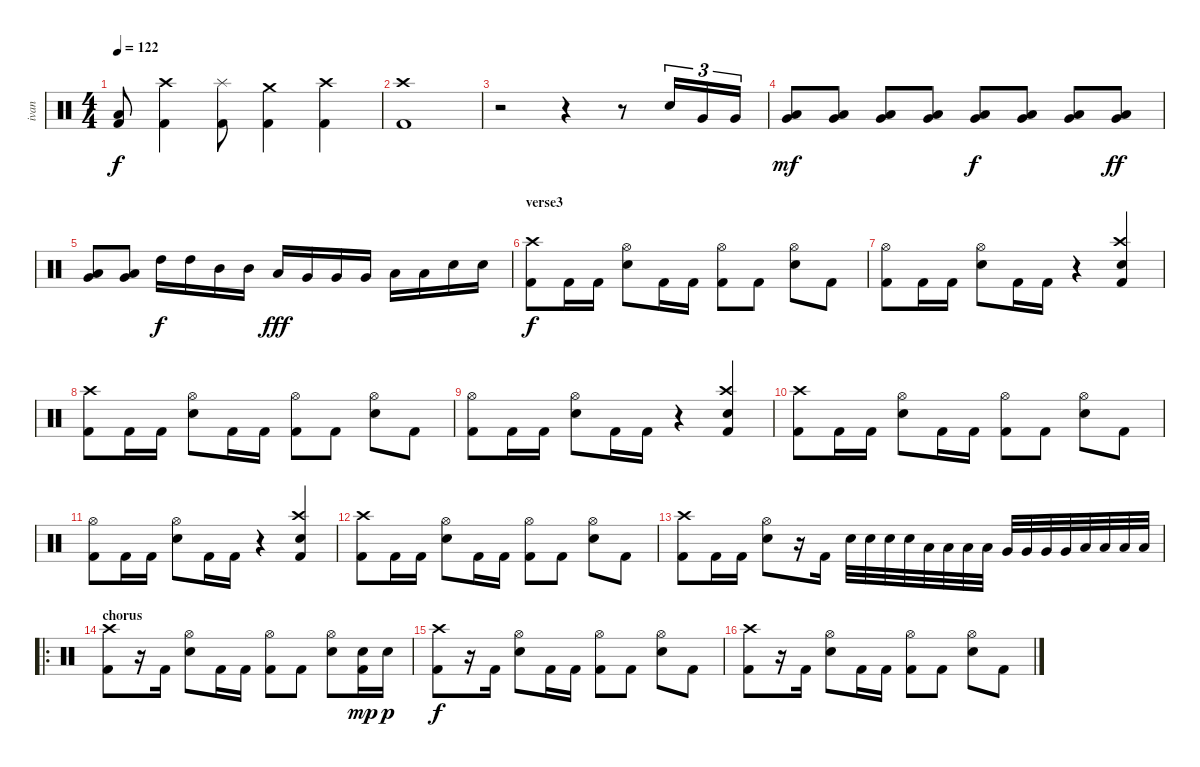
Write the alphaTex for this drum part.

\track ("ivan" "ivan") {instrument percussion}
\staff {score}
\articulation defaults
\ts (4 4)
\tempo 122
\clef neutral
\ks c
("Low Floor Tom (hit)" "Kick (hit) 2").8{dy f} ("Crash high (hit)" "Kick (hit) 2").4 ("Splash (hit)" "Kick (hit) 2").8 ("Crash medium (hit)" "Kick (hit) 2").4 ("Crash high (hit)" "Kick (hit) 2").4 |
("Crash high (hit)" "Kick (hit) 2").1 |
r.2 r.4 r.8 "Electric Snare (hit)".16{tu (3 2)} "Very Low Tom (hit)".16{tu (3 2)} "Very Low Tom (hit)".16{tu (3 2)} |
("Very Low Tom (hit)" "Low Floor Tom (hit)").8{dy mf} ("Very Low Tom (hit)" "Low Floor Tom (hit)").8 ("Very Low Tom (hit)" "Low Floor Tom (hit)").8 ("Very Low Tom (hit)" "Low Floor Tom (hit)").8 ("Very Low Tom (hit)" "Low Floor Tom (hit)").8{dy f} ("Very Low Tom (hit)" "Low Floor Tom (hit)").8 ("Very Low Tom (hit)" "Low Floor Tom (hit)").8 ("Very Low Tom (hit)" "Low Floor Tom (hit)").8{dy ff} |
("Very Low Tom (hit)" "Low Floor Tom (hit)").8 ("Very Low Tom (hit)" "Low Floor Tom (hit)").8 "High Tom (hit)".16{dy f} "High Tom (hit)".16 "Mid Tom (hit)".16 "Mid Tom (hit)".16 "Low Tom (hit)".16{dy fff} "Very Low Tom (hit)".16 "Very Low Tom (hit)".16 "Very Low Tom (hit)".16 "Low Floor Tom (hit)".16 "Low Floor Tom (hit)".16 "Electric Snare (hit)".16 "Electric Snare (hit)".16 |
\section ("" "verse3")
("Crash high (hit)" "Kick (hit) 2").8{dy f} "Kick (hit) 2".16 "Kick (hit) 2".16 ("Hi-Hat (open)" "Electric Snare (hit)").8 "Kick (hit) 2".16 "Kick (hit) 2".16 ("Hi-Hat (open)" "Kick (hit) 2").8 "Kick (hit) 2".8 ("Hi-Hat (open)" "Electric Snare (hit)").8 "Kick (hit) 2".8 |
("Hi-Hat (open)" "Kick (hit) 2").8 "Kick (hit) 2".16 "Kick (hit) 2".16 ("Hi-Hat (open)" "Electric Snare (hit)").8 "Kick (hit) 2".16 "Kick (hit) 2".16 r.4 ("Crash high (hit)" "Electric Snare (hit)" "Kick (hit) 2").4 |
("Crash high (hit)" "Kick (hit) 2").8 "Kick (hit) 2".16 "Kick (hit) 2".16 ("Hi-Hat (open)" "Electric Snare (hit)").8 "Kick (hit) 2".16 "Kick (hit) 2".16 ("Hi-Hat (open)" "Kick (hit) 2").8 "Kick (hit) 2".8 ("Hi-Hat (open)" "Electric Snare (hit)").8 "Kick (hit) 2".8 |
("Hi-Hat (open)" "Kick (hit) 2").8 "Kick (hit) 2".16 "Kick (hit) 2".16 ("Hi-Hat (open)" "Electric Snare (hit)").8 "Kick (hit) 2".16 "Kick (hit) 2".16 r.4 ("Crash high (hit)" "Electric Snare (hit)" "Kick (hit) 2").4 |
("Crash high (hit)" "Kick (hit) 2").8 "Kick (hit) 2".16 "Kick (hit) 2".16 ("Hi-Hat (open)" "Electric Snare (hit)").8 "Kick (hit) 2".16 "Kick (hit) 2".16 ("Hi-Hat (open)" "Kick (hit) 2").8 "Kick (hit) 2".8 ("Hi-Hat (open)" "Electric Snare (hit)").8 "Kick (hit) 2".8 |
("Hi-Hat (open)" "Kick (hit) 2").8 "Kick (hit) 2".16 "Kick (hit) 2".16 ("Hi-Hat (open)" "Electric Snare (hit)").8 "Kick (hit) 2".16 "Kick (hit) 2".16 r.4 ("Crash high (hit)" "Electric Snare (hit)" "Kick (hit) 2").4 |
("Crash high (hit)" "Kick (hit) 2").8 "Kick (hit) 2".16 "Kick (hit) 2".16 ("Hi-Hat (open)" "Electric Snare (hit)").8 "Kick (hit) 2".16 "Kick (hit) 2".16 ("Hi-Hat (open)" "Kick (hit) 2").8 "Kick (hit) 2".8 ("Hi-Hat (open)" "Electric Snare (hit)").8 "Kick (hit) 2".8 |
("Crash high (hit)" "Kick (hit) 2").8 "Kick (hit) 2".16 "Kick (hit) 2".16 ("Hi-Hat (open)" "Electric Snare (hit)").8 r.16 "Kick (hit) 2".16 "Electric Snare (hit)".32 "Electric Snare (hit)".32 "Electric Snare (hit)".32 "Electric Snare (hit)".32 "Low Tom (hit)".32 "Low Tom (hit)".32 "Low Tom (hit)".32 "Low Tom (hit)".32 "Very Low Tom (hit)".32 "Very Low Tom (hit)".32 "Very Low Tom (hit)".32 "Very Low Tom (hit)".32 "Low Floor Tom (hit)".32 "Low Floor Tom (hit)".32 "Low Floor Tom (hit)".32 "Low Floor Tom (hit)".32 |
\ro
\section ("" "chorus")
("Crash high (hit)" "Kick (hit) 2").8 r.16 "Kick (hit) 2".16 ("Hi-Hat (open)" "Electric Snare (hit)").8 "Kick (hit) 2".16 "Kick (hit) 2".16 ("Hi-Hat (open)" "Kick (hit) 2").8 "Kick (hit) 2".8 ("Hi-Hat (open)" "Electric Snare (hit)").8 ("Electric Snare (hit)" "Kick (hit) 2").16{dy mp} "Electric Snare (hit)".16{dy p} |
("Crash high (hit)" "Kick (hit) 2").8{dy f} r.16 "Kick (hit) 2".16 ("Hi-Hat (open)" "Electric Snare (hit)").8 "Kick (hit) 2".16 "Kick (hit) 2".16 ("Hi-Hat (open)" "Kick (hit) 2").8 "Kick (hit) 2".8 ("Hi-Hat (open)" "Electric Snare (hit)").8 "Kick (hit) 2".8 |
("Crash high (hit)" "Kick (hit) 2").8 r.16 "Kick (hit) 2".16 ("Hi-Hat (open)" "Electric Snare (hit)").8 "Kick (hit) 2".16 "Kick (hit) 2".16 ("Hi-Hat (open)" "Kick (hit) 2").8 "Kick (hit) 2".8 ("Hi-Hat (open)" "Electric Snare (hit)").8 "Kick (hit) 2".8
